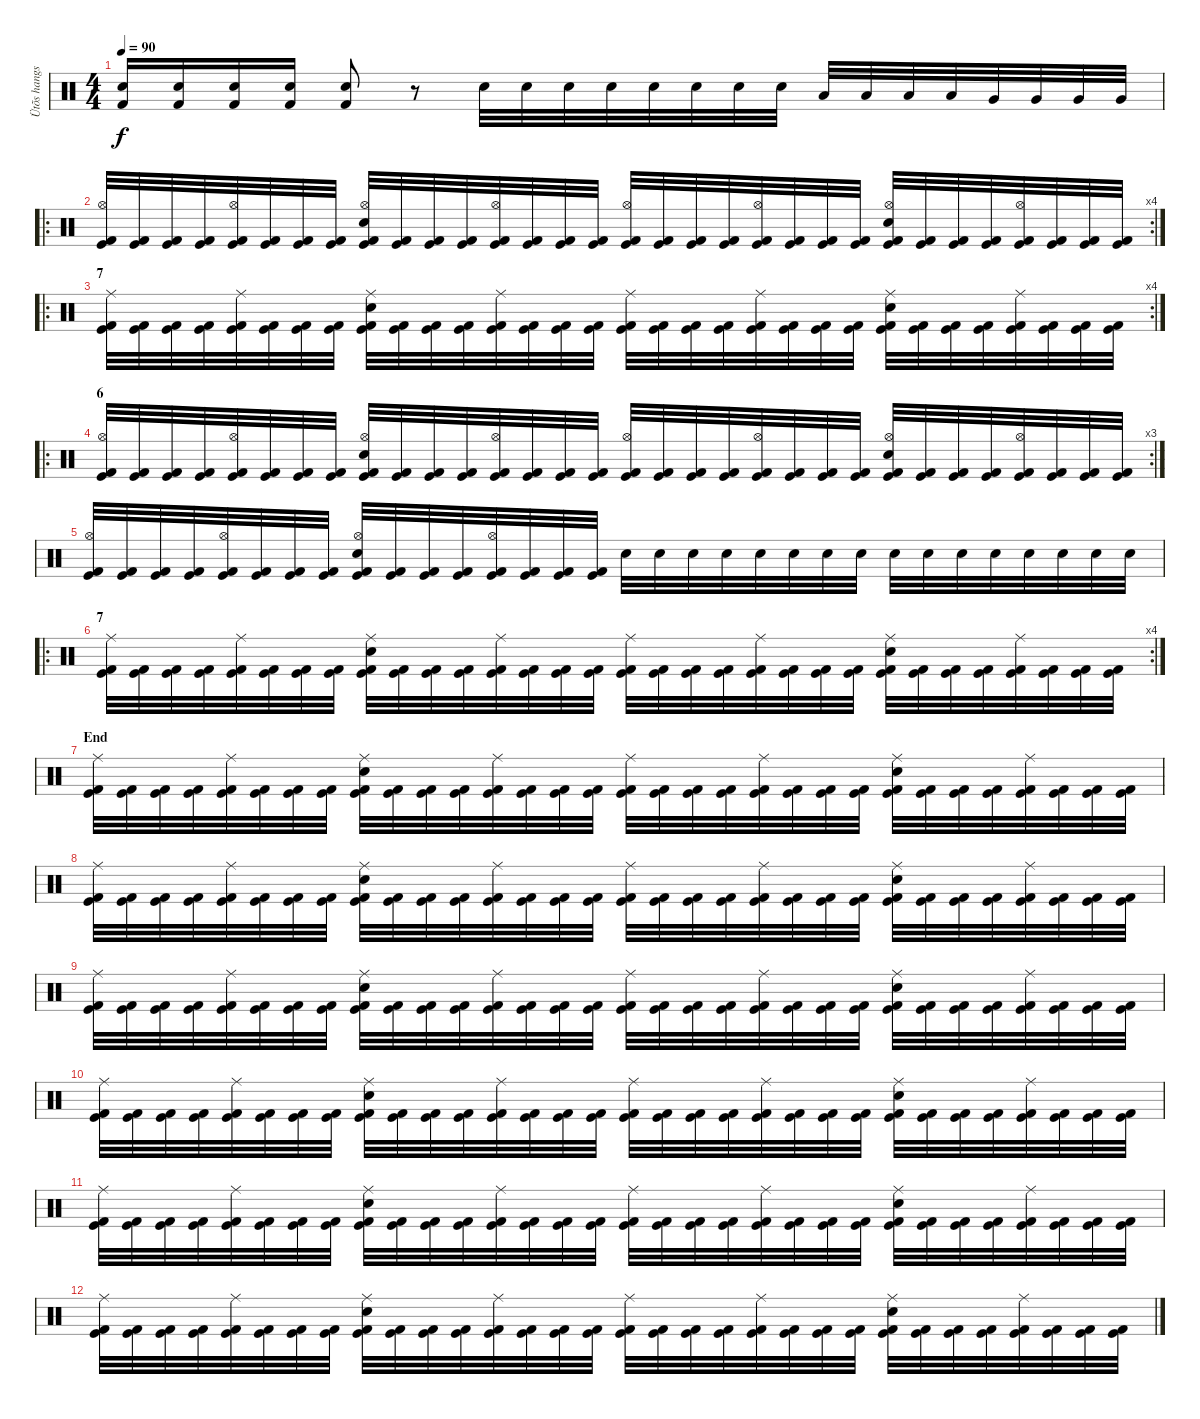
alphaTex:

\track ("Ütõs hangszer" "Ütõs hangs") {instrument percussion}
\staff {score}
\articulation defaults
\ts (4 4)
\tempo 90
\clef neutral
\ks c
("Kick (hit) 2" "Snare (hit) 2").16{dy f} ("Kick (hit) 2" "Snare (hit) 2").16 ("Kick (hit) 2" "Snare (hit) 2").16 ("Kick (hit) 2" "Snare (hit) 2").16 ("Kick (hit) 2" "Snare (hit) 2").8 r.8 "Snare (hit) 2".32 "Snare (hit) 2".32 "Snare (hit) 2".32 "Snare (hit) 2".32 "Snare (hit) 2".32 "Snare (hit) 2".32 "Snare (hit) 2".32 "Snare (hit) 2".32 "Low Tom (hit)".32 "Low Tom (hit)".32 "Low Tom (hit)".32 "Low Tom (hit)".32 "Very Low Tom (hit)".32 "Very Low Tom (hit)".32 "Very Low Tom (hit)".32 "Very Low Tom (hit)".32 |
\ro
\rc 4
("Hi-Hat (open)" "Kick (hit)" "Kick (hit) 2").32 ("Kick (hit)" "Kick (hit) 2").32 ("Kick (hit)" "Kick (hit) 2").32 ("Kick (hit)" "Kick (hit) 2").32 ("Hi-Hat (open)" "Kick (hit)" "Kick (hit) 2").32 ("Kick (hit)" "Kick (hit) 2").32 ("Kick (hit)" "Kick (hit) 2").32 ("Kick (hit)" "Kick (hit) 2").32 ("Hi-Hat (open)" "Snare (hit) 2" "Kick (hit)" "Kick (hit) 2").32 ("Kick (hit)" "Kick (hit) 2").32 ("Kick (hit)" "Kick (hit) 2").32 ("Kick (hit)" "Kick (hit) 2").32 ("Hi-Hat (open)" "Kick (hit)" "Kick (hit) 2").32 ("Kick (hit)" "Kick (hit) 2").32 ("Kick (hit)" "Kick (hit) 2").32 ("Kick (hit)" "Kick (hit) 2").32 ("Hi-Hat (open)" "Kick (hit)" "Kick (hit) 2").32 ("Kick (hit)" "Kick (hit) 2").32 ("Kick (hit)" "Kick (hit) 2").32 ("Kick (hit)" "Kick (hit) 2").32 ("Hi-Hat (open)" "Kick (hit)" "Kick (hit) 2").32 ("Kick (hit)" "Kick (hit) 2").32 ("Kick (hit)" "Kick (hit) 2").32 ("Kick (hit)" "Kick (hit) 2").32 ("Hi-Hat (open)" "Snare (hit) 2" "Kick (hit)" "Kick (hit) 2").32 ("Kick (hit)" "Kick (hit) 2").32 ("Kick (hit)" "Kick (hit) 2").32 ("Kick (hit)" "Kick (hit) 2").32 ("Hi-Hat (open)" "Kick (hit)" "Kick (hit) 2").32 ("Kick (hit)" "Kick (hit) 2").32 ("Kick (hit)" "Kick (hit) 2").32 ("Kick (hit)" "Kick (hit) 2").32 |
\ro
\rc 4
\section ("" "7")
("Ride (middle)" "Kick (hit)" "Kick (hit) 2").32 ("Kick (hit)" "Kick (hit) 2").32 ("Kick (hit)" "Kick (hit) 2").32 ("Kick (hit)" "Kick (hit) 2").32 ("Ride (middle)" "Kick (hit)" "Kick (hit) 2").32 ("Kick (hit)" "Kick (hit) 2").32 ("Kick (hit)" "Kick (hit) 2").32 ("Kick (hit)" "Kick (hit) 2").32 ("Ride (middle)" "Snare (hit) 2" "Kick (hit)" "Kick (hit) 2").32 ("Kick (hit)" "Kick (hit) 2").32 ("Kick (hit)" "Kick (hit) 2").32 ("Kick (hit)" "Kick (hit) 2").32 ("Ride (middle)" "Kick (hit)" "Kick (hit) 2").32 ("Kick (hit)" "Kick (hit) 2").32 ("Kick (hit)" "Kick (hit) 2").32 ("Kick (hit)" "Kick (hit) 2").32 ("Ride (middle)" "Kick (hit)" "Kick (hit) 2").32 ("Kick (hit)" "Kick (hit) 2").32 ("Kick (hit)" "Kick (hit) 2").32 ("Kick (hit)" "Kick (hit) 2").32 ("Ride (middle)" "Kick (hit)" "Kick (hit) 2").32 ("Kick (hit)" "Kick (hit) 2").32 ("Kick (hit)" "Kick (hit) 2").32 ("Kick (hit)" "Kick (hit) 2").32 ("Ride (middle)" "Snare (hit) 2" "Kick (hit)" "Kick (hit) 2").32 ("Kick (hit)" "Kick (hit) 2").32 ("Kick (hit)" "Kick (hit) 2").32 ("Kick (hit)" "Kick (hit) 2").32 ("Ride (middle)" "Kick (hit)" "Kick (hit) 2").32 ("Kick (hit)" "Kick (hit) 2").32 ("Kick (hit)" "Kick (hit) 2").32 ("Kick (hit)" "Kick (hit) 2").32 |
\ro
\rc 3
\section ("" "6")
("Hi-Hat (open)" "Kick (hit)" "Kick (hit) 2").32 ("Kick (hit)" "Kick (hit) 2").32 ("Kick (hit)" "Kick (hit) 2").32 ("Kick (hit)" "Kick (hit) 2").32 ("Hi-Hat (open)" "Kick (hit)" "Kick (hit) 2").32 ("Kick (hit)" "Kick (hit) 2").32 ("Kick (hit)" "Kick (hit) 2").32 ("Kick (hit)" "Kick (hit) 2").32 ("Hi-Hat (open)" "Snare (hit) 2" "Kick (hit)" "Kick (hit) 2").32 ("Kick (hit)" "Kick (hit) 2").32 ("Kick (hit)" "Kick (hit) 2").32 ("Kick (hit)" "Kick (hit) 2").32 ("Hi-Hat (open)" "Kick (hit)" "Kick (hit) 2").32 ("Kick (hit)" "Kick (hit) 2").32 ("Kick (hit)" "Kick (hit) 2").32 ("Kick (hit)" "Kick (hit) 2").32 ("Hi-Hat (open)" "Kick (hit)" "Kick (hit) 2").32 ("Kick (hit)" "Kick (hit) 2").32 ("Kick (hit)" "Kick (hit) 2").32 ("Kick (hit)" "Kick (hit) 2").32 ("Hi-Hat (open)" "Kick (hit)" "Kick (hit) 2").32 ("Kick (hit)" "Kick (hit) 2").32 ("Kick (hit)" "Kick (hit) 2").32 ("Kick (hit)" "Kick (hit) 2").32 ("Hi-Hat (open)" "Snare (hit) 2" "Kick (hit)" "Kick (hit) 2").32 ("Kick (hit)" "Kick (hit) 2").32 ("Kick (hit)" "Kick (hit) 2").32 ("Kick (hit)" "Kick (hit) 2").32 ("Hi-Hat (open)" "Kick (hit)" "Kick (hit) 2").32 ("Kick (hit)" "Kick (hit) 2").32 ("Kick (hit)" "Kick (hit) 2").32 ("Kick (hit)" "Kick (hit) 2").32 |
("Hi-Hat (open)" "Kick (hit)" "Kick (hit) 2").32 ("Kick (hit)" "Kick (hit) 2").32 ("Kick (hit)" "Kick (hit) 2").32 ("Kick (hit)" "Kick (hit) 2").32 ("Hi-Hat (open)" "Kick (hit)" "Kick (hit) 2").32 ("Kick (hit)" "Kick (hit) 2").32 ("Kick (hit)" "Kick (hit) 2").32 ("Kick (hit)" "Kick (hit) 2").32 ("Hi-Hat (open)" "Snare (hit) 2" "Kick (hit)" "Kick (hit) 2").32 ("Kick (hit)" "Kick (hit) 2").32 ("Kick (hit)" "Kick (hit) 2").32 ("Kick (hit)" "Kick (hit) 2").32 ("Hi-Hat (open)" "Kick (hit)" "Kick (hit) 2").32 ("Kick (hit)" "Kick (hit) 2").32 ("Kick (hit)" "Kick (hit) 2").32 ("Kick (hit)" "Kick (hit) 2").32 "Snare (hit) 2".32 "Snare (hit) 2".32 "Snare (hit) 2".32 "Snare (hit) 2".32 "Snare (hit) 2".32 "Snare (hit) 2".32 "Snare (hit) 2".32 "Snare (hit) 2".32 "Snare (hit) 2".32 "Snare (hit) 2".32 "Snare (hit) 2".32 "Snare (hit) 2".32 "Snare (hit) 2".32 "Snare (hit) 2".32 "Snare (hit) 2".32 "Snare (hit) 2".32 |
\ro
\rc 4
\section ("" "7")
("Ride (middle)" "Kick (hit)" "Kick (hit) 2").32 ("Kick (hit)" "Kick (hit) 2").32 ("Kick (hit)" "Kick (hit) 2").32 ("Kick (hit)" "Kick (hit) 2").32 ("Ride (middle)" "Kick (hit)" "Kick (hit) 2").32 ("Kick (hit)" "Kick (hit) 2").32 ("Kick (hit)" "Kick (hit) 2").32 ("Kick (hit)" "Kick (hit) 2").32 ("Ride (middle)" "Snare (hit) 2" "Kick (hit)" "Kick (hit) 2").32 ("Kick (hit)" "Kick (hit) 2").32 ("Kick (hit)" "Kick (hit) 2").32 ("Kick (hit)" "Kick (hit) 2").32 ("Ride (middle)" "Kick (hit)" "Kick (hit) 2").32 ("Kick (hit)" "Kick (hit) 2").32 ("Kick (hit)" "Kick (hit) 2").32 ("Kick (hit)" "Kick (hit) 2").32 ("Ride (middle)" "Kick (hit)" "Kick (hit) 2").32 ("Kick (hit)" "Kick (hit) 2").32 ("Kick (hit)" "Kick (hit) 2").32 ("Kick (hit)" "Kick (hit) 2").32 ("Ride (middle)" "Kick (hit)" "Kick (hit) 2").32 ("Kick (hit)" "Kick (hit) 2").32 ("Kick (hit)" "Kick (hit) 2").32 ("Kick (hit)" "Kick (hit) 2").32 ("Ride (middle)" "Snare (hit) 2" "Kick (hit)" "Kick (hit) 2").32 ("Kick (hit)" "Kick (hit) 2").32 ("Kick (hit)" "Kick (hit) 2").32 ("Kick (hit)" "Kick (hit) 2").32 ("Ride (middle)" "Kick (hit)" "Kick (hit) 2").32 ("Kick (hit)" "Kick (hit) 2").32 ("Kick (hit)" "Kick (hit) 2").32 ("Kick (hit)" "Kick (hit) 2").32 |
\section ("" "End")
("Ride (middle)" "Kick (hit)" "Kick (hit) 2").32 ("Kick (hit)" "Kick (hit) 2").32 ("Kick (hit)" "Kick (hit) 2").32 ("Kick (hit)" "Kick (hit) 2").32 ("Ride (middle)" "Kick (hit)" "Kick (hit) 2").32 ("Kick (hit)" "Kick (hit) 2").32 ("Kick (hit)" "Kick (hit) 2").32 ("Kick (hit)" "Kick (hit) 2").32 ("Ride (middle)" "Snare (hit) 2" "Kick (hit)" "Kick (hit) 2").32 ("Kick (hit)" "Kick (hit) 2").32 ("Kick (hit)" "Kick (hit) 2").32 ("Kick (hit)" "Kick (hit) 2").32 ("Ride (middle)" "Kick (hit)" "Kick (hit) 2").32 ("Kick (hit)" "Kick (hit) 2").32 ("Kick (hit)" "Kick (hit) 2").32 ("Kick (hit)" "Kick (hit) 2").32 ("Ride (middle)" "Kick (hit)" "Kick (hit) 2").32 ("Kick (hit)" "Kick (hit) 2").32 ("Kick (hit)" "Kick (hit) 2").32 ("Kick (hit)" "Kick (hit) 2").32 ("Ride (middle)" "Kick (hit)" "Kick (hit) 2").32 ("Kick (hit)" "Kick (hit) 2").32 ("Kick (hit)" "Kick (hit) 2").32 ("Kick (hit)" "Kick (hit) 2").32 ("Ride (middle)" "Snare (hit) 2" "Kick (hit)" "Kick (hit) 2").32 ("Kick (hit)" "Kick (hit) 2").32 ("Kick (hit)" "Kick (hit) 2").32 ("Kick (hit)" "Kick (hit) 2").32 ("Ride (middle)" "Kick (hit)" "Kick (hit) 2").32 ("Kick (hit)" "Kick (hit) 2").32 ("Kick (hit)" "Kick (hit) 2").32 ("Kick (hit)" "Kick (hit) 2").32 |
("Ride (middle)" "Kick (hit)" "Kick (hit) 2").32 ("Kick (hit)" "Kick (hit) 2").32 ("Kick (hit)" "Kick (hit) 2").32 ("Kick (hit)" "Kick (hit) 2").32 ("Ride (middle)" "Kick (hit)" "Kick (hit) 2").32 ("Kick (hit)" "Kick (hit) 2").32 ("Kick (hit)" "Kick (hit) 2").32 ("Kick (hit)" "Kick (hit) 2").32 ("Ride (middle)" "Snare (hit) 2" "Kick (hit)" "Kick (hit) 2").32 ("Kick (hit)" "Kick (hit) 2").32 ("Kick (hit)" "Kick (hit) 2").32 ("Kick (hit)" "Kick (hit) 2").32 ("Ride (middle)" "Kick (hit)" "Kick (hit) 2").32 ("Kick (hit)" "Kick (hit) 2").32 ("Kick (hit)" "Kick (hit) 2").32 ("Kick (hit)" "Kick (hit) 2").32 ("Ride (middle)" "Kick (hit)" "Kick (hit) 2").32 ("Kick (hit)" "Kick (hit) 2").32 ("Kick (hit)" "Kick (hit) 2").32 ("Kick (hit)" "Kick (hit) 2").32 ("Ride (middle)" "Kick (hit)" "Kick (hit) 2").32 ("Kick (hit)" "Kick (hit) 2").32 ("Kick (hit)" "Kick (hit) 2").32 ("Kick (hit)" "Kick (hit) 2").32 ("Ride (middle)" "Snare (hit) 2" "Kick (hit)" "Kick (hit) 2").32 ("Kick (hit)" "Kick (hit) 2").32 ("Kick (hit)" "Kick (hit) 2").32 ("Kick (hit)" "Kick (hit) 2").32 ("Ride (middle)" "Kick (hit)" "Kick (hit) 2").32 ("Kick (hit)" "Kick (hit) 2").32 ("Kick (hit)" "Kick (hit) 2").32 ("Kick (hit)" "Kick (hit) 2").32 |
("Ride (middle)" "Kick (hit)" "Kick (hit) 2").32 ("Kick (hit)" "Kick (hit) 2").32 ("Kick (hit)" "Kick (hit) 2").32 ("Kick (hit)" "Kick (hit) 2").32 ("Ride (middle)" "Kick (hit)" "Kick (hit) 2").32 ("Kick (hit)" "Kick (hit) 2").32 ("Kick (hit)" "Kick (hit) 2").32 ("Kick (hit)" "Kick (hit) 2").32 ("Ride (middle)" "Snare (hit) 2" "Kick (hit)" "Kick (hit) 2").32 ("Kick (hit)" "Kick (hit) 2").32 ("Kick (hit)" "Kick (hit) 2").32 ("Kick (hit)" "Kick (hit) 2").32 ("Ride (middle)" "Kick (hit)" "Kick (hit) 2").32 ("Kick (hit)" "Kick (hit) 2").32 ("Kick (hit)" "Kick (hit) 2").32 ("Kick (hit)" "Kick (hit) 2").32 ("Ride (middle)" "Kick (hit)" "Kick (hit) 2").32 ("Kick (hit)" "Kick (hit) 2").32 ("Kick (hit)" "Kick (hit) 2").32 ("Kick (hit)" "Kick (hit) 2").32 ("Ride (middle)" "Kick (hit)" "Kick (hit) 2").32 ("Kick (hit)" "Kick (hit) 2").32 ("Kick (hit)" "Kick (hit) 2").32 ("Kick (hit)" "Kick (hit) 2").32 ("Ride (middle)" "Snare (hit) 2" "Kick (hit)" "Kick (hit) 2").32 ("Kick (hit)" "Kick (hit) 2").32 ("Kick (hit)" "Kick (hit) 2").32 ("Kick (hit)" "Kick (hit) 2").32 ("Ride (middle)" "Kick (hit)" "Kick (hit) 2").32 ("Kick (hit)" "Kick (hit) 2").32 ("Kick (hit)" "Kick (hit) 2").32 ("Kick (hit)" "Kick (hit) 2").32 |
("Ride (middle)" "Kick (hit)" "Kick (hit) 2").32 ("Kick (hit)" "Kick (hit) 2").32 ("Kick (hit)" "Kick (hit) 2").32 ("Kick (hit)" "Kick (hit) 2").32 ("Ride (middle)" "Kick (hit)" "Kick (hit) 2").32 ("Kick (hit)" "Kick (hit) 2").32 ("Kick (hit)" "Kick (hit) 2").32 ("Kick (hit)" "Kick (hit) 2").32 ("Ride (middle)" "Snare (hit) 2" "Kick (hit)" "Kick (hit) 2").32 ("Kick (hit)" "Kick (hit) 2").32 ("Kick (hit)" "Kick (hit) 2").32 ("Kick (hit)" "Kick (hit) 2").32 ("Ride (middle)" "Kick (hit)" "Kick (hit) 2").32 ("Kick (hit)" "Kick (hit) 2").32 ("Kick (hit)" "Kick (hit) 2").32 ("Kick (hit)" "Kick (hit) 2").32 ("Ride (middle)" "Kick (hit)" "Kick (hit) 2").32 ("Kick (hit)" "Kick (hit) 2").32 ("Kick (hit)" "Kick (hit) 2").32 ("Kick (hit)" "Kick (hit) 2").32 ("Ride (middle)" "Kick (hit)" "Kick (hit) 2").32 ("Kick (hit)" "Kick (hit) 2").32 ("Kick (hit)" "Kick (hit) 2").32 ("Kick (hit)" "Kick (hit) 2").32 ("Ride (middle)" "Snare (hit) 2" "Kick (hit)" "Kick (hit) 2").32 ("Kick (hit)" "Kick (hit) 2").32 ("Kick (hit)" "Kick (hit) 2").32 ("Kick (hit)" "Kick (hit) 2").32 ("Ride (middle)" "Kick (hit)" "Kick (hit) 2").32 ("Kick (hit)" "Kick (hit) 2").32 ("Kick (hit)" "Kick (hit) 2").32 ("Kick (hit)" "Kick (hit) 2").32 |
("Ride (middle)" "Kick (hit)" "Kick (hit) 2").32 ("Kick (hit)" "Kick (hit) 2").32 ("Kick (hit)" "Kick (hit) 2").32 ("Kick (hit)" "Kick (hit) 2").32 ("Ride (middle)" "Kick (hit)" "Kick (hit) 2").32 ("Kick (hit)" "Kick (hit) 2").32 ("Kick (hit)" "Kick (hit) 2").32 ("Kick (hit)" "Kick (hit) 2").32 ("Ride (middle)" "Snare (hit) 2" "Kick (hit)" "Kick (hit) 2").32 ("Kick (hit)" "Kick (hit) 2").32 ("Kick (hit)" "Kick (hit) 2").32 ("Kick (hit)" "Kick (hit) 2").32 ("Ride (middle)" "Kick (hit)" "Kick (hit) 2").32 ("Kick (hit)" "Kick (hit) 2").32 ("Kick (hit)" "Kick (hit) 2").32 ("Kick (hit)" "Kick (hit) 2").32 ("Ride (middle)" "Kick (hit)" "Kick (hit) 2").32 ("Kick (hit)" "Kick (hit) 2").32 ("Kick (hit)" "Kick (hit) 2").32 ("Kick (hit)" "Kick (hit) 2").32 ("Ride (middle)" "Kick (hit)" "Kick (hit) 2").32 ("Kick (hit)" "Kick (hit) 2").32 ("Kick (hit)" "Kick (hit) 2").32 ("Kick (hit)" "Kick (hit) 2").32 ("Ride (middle)" "Snare (hit) 2" "Kick (hit)" "Kick (hit) 2").32 ("Kick (hit)" "Kick (hit) 2").32 ("Kick (hit)" "Kick (hit) 2").32 ("Kick (hit)" "Kick (hit) 2").32 ("Ride (middle)" "Kick (hit)" "Kick (hit) 2").32 ("Kick (hit)" "Kick (hit) 2").32 ("Kick (hit)" "Kick (hit) 2").32 ("Kick (hit)" "Kick (hit) 2").32 |
("Ride (middle)" "Kick (hit)" "Kick (hit) 2").32 ("Kick (hit)" "Kick (hit) 2").32 ("Kick (hit)" "Kick (hit) 2").32 ("Kick (hit)" "Kick (hit) 2").32 ("Ride (middle)" "Kick (hit)" "Kick (hit) 2").32 ("Kick (hit)" "Kick (hit) 2").32 ("Kick (hit)" "Kick (hit) 2").32 ("Kick (hit)" "Kick (hit) 2").32 ("Ride (middle)" "Snare (hit) 2" "Kick (hit)" "Kick (hit) 2").32 ("Kick (hit)" "Kick (hit) 2").32 ("Kick (hit)" "Kick (hit) 2").32 ("Kick (hit)" "Kick (hit) 2").32 ("Ride (middle)" "Kick (hit)" "Kick (hit) 2").32 ("Kick (hit)" "Kick (hit) 2").32 ("Kick (hit)" "Kick (hit) 2").32 ("Kick (hit)" "Kick (hit) 2").32 ("Ride (middle)" "Kick (hit)" "Kick (hit) 2").32 ("Kick (hit)" "Kick (hit) 2").32 ("Kick (hit)" "Kick (hit) 2").32 ("Kick (hit)" "Kick (hit) 2").32 ("Ride (middle)" "Kick (hit)" "Kick (hit) 2").32 ("Kick (hit)" "Kick (hit) 2").32 ("Kick (hit)" "Kick (hit) 2").32 ("Kick (hit)" "Kick (hit) 2").32 ("Ride (middle)" "Snare (hit) 2" "Kick (hit)" "Kick (hit) 2").32 ("Kick (hit)" "Kick (hit) 2").32 ("Kick (hit)" "Kick (hit) 2").32 ("Kick (hit)" "Kick (hit) 2").32 ("Ride (middle)" "Kick (hit)" "Kick (hit) 2").32 ("Kick (hit)" "Kick (hit) 2").32 ("Kick (hit)" "Kick (hit) 2").32 ("Kick (hit)" "Kick (hit) 2").32
